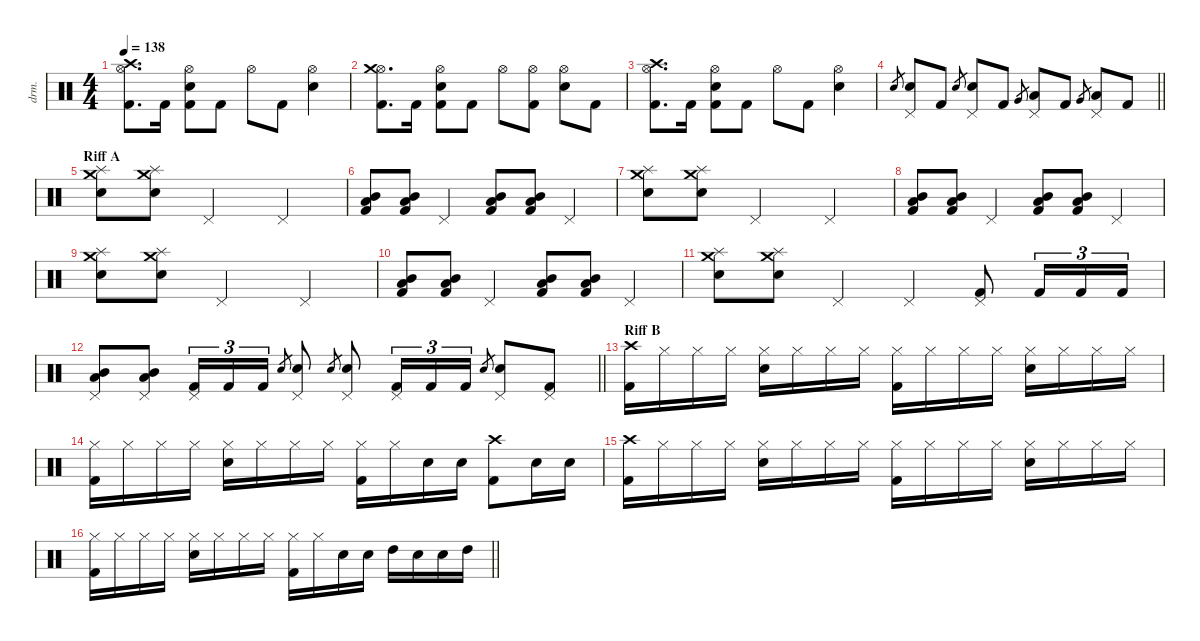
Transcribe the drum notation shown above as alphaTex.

\defaultSystemsLayout 4
\hideDynamics
\bracketExtendMode nobrackets
\otherSystemsTrackNameOrientation horizontal
\track ("Lee Kerslake" "drm.") {instrument percussion}
\staff {score}
\articulation defaults
\ts (4 4)
\tempo 138
\clef neutral
\ks c
("Hi-Hat (open)" "Crash high (hit)" "Kick (hit) 2").8{d dy f beam Down} "Kick (hit) 2".16{beam Down} ("Hi-Hat (open)" "Snare (hit) 2" "Kick (hit) 2").8{beam Down} "Kick (hit) 2".8{beam Down} "Hi-Hat (open)".8{beam Down} "Kick (hit) 2".8{beam Down} ("Hi-Hat (open)" "Snare (hit) 2").4{beam Down} |
("Hi-Hat (open)" "Crash medium (hit)" "Kick (hit) 2").8{d beam Down} "Kick (hit) 2".16{beam Down} ("Hi-Hat (open)" "Snare (hit) 2" "Kick (hit) 2").8{beam Down} "Kick (hit) 2".8{beam Down} "Hi-Hat (open)".8{beam Down} ("Hi-Hat (open)" "Kick (hit) 2").8{beam Down} ("Hi-Hat (open)" "Snare (hit) 2").8{beam Down} "Kick (hit) 2".8{beam Down} |
("Hi-Hat (open)" "Crash high (hit)" "Kick (hit) 2").8{d beam Down} "Kick (hit) 2".16{beam Down} ("Hi-Hat (open)" "Snare (hit) 2" "Kick (hit) 2").8{beam Down} "Kick (hit) 2".8{beam Down} "Hi-Hat (open)".8{beam Down} "Kick (hit) 2".8{beam Down} ("Hi-Hat (open)" "Snare (hit) 2").4{beam Down} |
\barLineRight lightlight "Snare (hit) 2".8{gr dy mf beam Up}
("Pedal Hi-Hat (hit)" "Snare (hit) 2").8{dy f beam Up} "Kick (hit) 2".8{beam Up} "Snare (hit) 2".8{gr dy mf beam Up} ("Pedal Hi-Hat (hit)" "Snare (hit) 2").8{dy f beam Up} "Kick (hit) 2".8{beam Up} "Very Low Tom (hit)".8{gr dy mf beam Up} ("Pedal Hi-Hat (hit)" "Low Tom (hit)").8{dy f beam Up} "Kick (hit) 2".8{beam Up} "Very Low Tom (hit)".8{gr dy mf beam Up} ("Pedal Hi-Hat (hit)" "Low Tom (hit)").8{dy f beam Up} "Kick (hit) 2".8{beam Up} |
\section ("" "Riff A")
("Snare (hit) 2" "Crash medium (hit)" "Splash (hit)").8{beam Down} ("Snare (hit) 2" "Crash medium (hit)" "Splash (hit)").8{beam Down} "Pedal Hi-Hat (hit)".2{beam Up} "Pedal Hi-Hat (hit)".4{beam Up} |
("Mid Tom (hit)" "Low Tom (hit)" "Kick (hit) 2").8{beam Up} ("Mid Tom (hit)" "Low Tom (hit)" "Kick (hit) 2").8{beam Up} "Pedal Hi-Hat (hit)".4{beam Up} ("Mid Tom (hit)" "Low Tom (hit)" "Kick (hit) 2").8{beam Up} ("Mid Tom (hit)" "Low Tom (hit)" "Kick (hit) 2").8{beam Up} "Pedal Hi-Hat (hit)".4{beam Up} |
("Snare (hit) 2" "Crash medium (hit)" "Splash (hit)").8{beam Down} ("Snare (hit) 2" "Crash medium (hit)" "Splash (hit)").8{beam Down} "Pedal Hi-Hat (hit)".2{beam Up} "Pedal Hi-Hat (hit)".4{beam Up} |
("Mid Tom (hit)" "Low Tom (hit)" "Kick (hit) 2").8{beam Up} ("Mid Tom (hit)" "Low Tom (hit)" "Kick (hit) 2").8{beam Up} "Pedal Hi-Hat (hit)".4{beam Up} ("Mid Tom (hit)" "Low Tom (hit)" "Kick (hit) 2").8{beam Up} ("Mid Tom (hit)" "Low Tom (hit)" "Kick (hit) 2").8{beam Up} "Pedal Hi-Hat (hit)".4{beam Up} |
("Snare (hit) 2" "Crash medium (hit)" "Splash (hit)").8{beam Down} ("Snare (hit) 2" "Crash medium (hit)" "Splash (hit)").8{beam Down} "Pedal Hi-Hat (hit)".2{beam Up} "Pedal Hi-Hat (hit)".4{beam Up} |
("Mid Tom (hit)" "Low Tom (hit)" "Kick (hit) 2").8{beam Up} ("Mid Tom (hit)" "Low Tom (hit)" "Kick (hit) 2").8{beam Up} "Pedal Hi-Hat (hit)".4{beam Up} ("Mid Tom (hit)" "Low Tom (hit)" "Kick (hit) 2").8{beam Up} ("Mid Tom (hit)" "Low Tom (hit)" "Kick (hit) 2").8{beam Up} "Pedal Hi-Hat (hit)".4{beam Up} |
("Snare (hit) 2" "Crash medium (hit)" "Splash (hit)").8{beam Down} ("Snare (hit) 2" "Crash medium (hit)" "Splash (hit)").8{beam Down} "Pedal Hi-Hat (hit)".4{beam Up} "Pedal Hi-Hat (hit)".4{beam Up} ("Pedal Hi-Hat (hit)" "Kick (hit) 2").8{beam Up} "Kick (hit) 2".16{tu (3 2) beam Up} "Kick (hit) 2".16{tu (3 2) beam Up} "Kick (hit) 2".16{tu (3 2) beam Up} |
\barLineRight lightlight
("Pedal Hi-Hat (hit)" "Mid Tom (hit)" "Low Tom (hit)").8{beam Up} ("Pedal Hi-Hat (hit)" "Mid Tom (hit)" "Low Tom (hit)").8{beam Up} ("Pedal Hi-Hat (hit)" "Kick (hit) 2").16{tu (3 2) beam Up} "Kick (hit) 2".16{tu (3 2) beam Up} "Kick (hit) 2".16{tu (3 2) beam Up} "Snare (hit) 2".8{gr dy mf beam Up} ("Pedal Hi-Hat (hit)" "Snare (hit) 2").8{dy f beam Up} "Snare (hit) 2".8{gr dy mf beam Up} ("Pedal Hi-Hat (hit)" "Snare (hit) 2").8{dy f beam Up} ("Pedal Hi-Hat (hit)" "Kick (hit) 2").16{tu (3 2) beam Up} "Kick (hit) 2".16{tu (3 2) beam Up} "Kick (hit) 2".16{tu (3 2) beam Up} "Snare (hit) 2".8{gr dy mf beam Up} ("Pedal Hi-Hat (hit)" "Snare (hit) 2").8{dy f beam Up} ("Pedal Hi-Hat (hit)" "Kick (hit) 2").8{beam Up} |
\section ("" "Riff B")
("Crash high (hit)" "Kick (hit) 2").16{beam Down} "Hi-Hat (closed)".16{beam Down} "Hi-Hat (closed)".16{beam Down} "Hi-Hat (closed)".16{beam Down} ("Hi-Hat (closed)" "Snare (hit) 2").16{beam Down} "Hi-Hat (closed)".16{beam Down} "Hi-Hat (closed)".16{beam Down} "Hi-Hat (closed)".16{beam Down} ("Hi-Hat (closed)" "Kick (hit) 2").16{beam Down} "Hi-Hat (closed)".16{beam Down} "Hi-Hat (closed)".16{beam Down} "Hi-Hat (closed)".16{beam Down} ("Hi-Hat (closed)" "Snare (hit) 2").16{beam Down} "Hi-Hat (closed)".16{beam Down} "Hi-Hat (closed)".16{beam Down} "Hi-Hat (closed)".16{beam Down} |
("Hi-Hat (closed)" "Kick (hit) 2").16{beam Down} "Hi-Hat (closed)".16{beam Down} "Hi-Hat (closed)".16{beam Down} "Hi-Hat (closed)".16{beam Down} ("Hi-Hat (closed)" "Snare (hit) 2").16{beam Down} "Hi-Hat (closed)".16{beam Down} "Hi-Hat (closed)".16{beam Down} "Hi-Hat (closed)".16{beam Down} ("Hi-Hat (closed)" "Kick (hit) 2").16{beam Down} "Hi-Hat (closed)".16{beam Down} "Snare (hit) 2".16{beam Down} "Snare (hit) 2".16{beam Down} ("Crash high (hit)" "Kick (hit) 2").8{beam Down} "Snare (hit) 2".16{beam Down} "Snare (hit) 2".16{beam Down} |
("Crash high (hit)" "Kick (hit) 2").16{beam Down} "Hi-Hat (closed)".16{beam Down} "Hi-Hat (closed)".16{beam Down} "Hi-Hat (closed)".16{beam Down} ("Hi-Hat (closed)" "Snare (hit) 2").16{beam Down} "Hi-Hat (closed)".16{beam Down} "Hi-Hat (closed)".16{beam Down} "Hi-Hat (closed)".16{beam Down} ("Hi-Hat (closed)" "Kick (hit) 2").16{beam Down} "Hi-Hat (closed)".16{beam Down} "Hi-Hat (closed)".16{beam Down} "Hi-Hat (closed)".16{beam Down} ("Hi-Hat (closed)" "Snare (hit) 2").16{beam Down} "Hi-Hat (closed)".16{beam Down} "Hi-Hat (closed)".16{beam Down} "Hi-Hat (closed)".16{beam Down} |
\barLineRight lightlight
("Hi-Hat (closed)" "Kick (hit) 2").16{beam Down} "Hi-Hat (closed)".16{beam Down} "Hi-Hat (closed)".16{beam Down} "Hi-Hat (closed)".16{beam Down} ("Hi-Hat (closed)" "Snare (hit) 2").16{beam Down} "Hi-Hat (closed)".16{beam Down} "Hi-Hat (closed)".16{beam Down} "Hi-Hat (closed)".16{beam Down} ("Hi-Hat (closed)" "Kick (hit) 2").16{beam Down} "Hi-Hat (closed)".16{beam Down} "Snare (hit) 2".16{beam Down} "Snare (hit) 2".16{beam Down} "High Tom (hit)".16{beam Down} "Snare (hit) 2".16{beam Down} "Snare (hit) 2".16{beam Down} "High Tom (hit)".16{beam Down}
